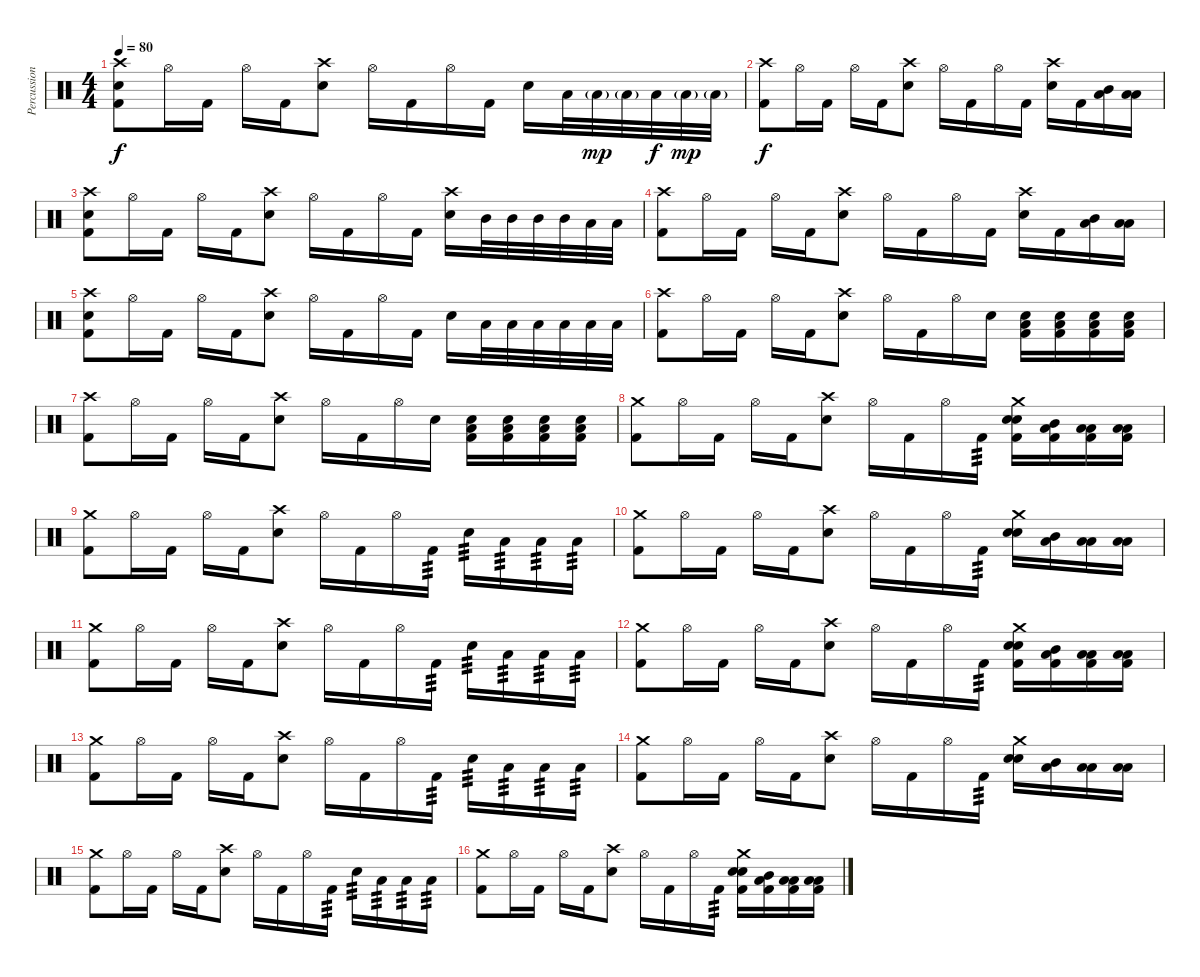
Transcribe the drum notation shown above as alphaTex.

\track ("Percussion" "Percussion") {instrument percussion}
\staff {score}
\articulation defaults
\ts (4 4)
\tempo 80
\clef neutral
\ks c
("Crash high (hit)" "Snare (hit) 2" "Kick (hit) 2").8{dy f} "Hi-Hat (open)".16 "Kick (hit) 2".16 "Hi-Hat (open)".16 "Kick (hit) 2".16 ("Crash high (hit)" "Snare (hit) 2").8 "Hi-Hat (open)".16 "Kick (hit) 2".16 "Hi-Hat (open)".16 "Kick (hit) 2".16 "Snare (hit) 2".16 "Low Floor Tom (hit)".32 "Low Floor Tom (hit)"{g}.32{dy mp} "Low Floor Tom (hit)"{g}.32 "Low Floor Tom (hit)".32{dy f} "Low Floor Tom (hit)"{g}.32{dy mp} "Low Floor Tom (hit)"{g}.32 |
("Crash high (hit)" "Kick (hit) 2").8{dy f} "Hi-Hat (open)".16 "Kick (hit) 2".16 "Hi-Hat (open)".16 "Kick (hit) 2".16 ("Crash high (hit)" "Snare (hit) 2").8 "Hi-Hat (open)".16 "Kick (hit) 2".16 "Hi-Hat (open)".16 "Kick (hit) 2".16 ("Crash high (hit)" "Snare (hit) 2").16 "Kick (hit) 2".16 ("Mid Tom (hit)" "Low Tom (hit)").16 ("Low Floor Tom (hit)" "Low Floor Tom (hit)").16 |
("Crash high (hit)" "Snare (hit) 2" "Kick (hit) 2").8 "Hi-Hat (open)".16 "Kick (hit) 2".16 "Hi-Hat (open)".16 "Kick (hit) 2".16 ("Crash high (hit)" "Snare (hit) 2").8 "Hi-Hat (open)".16 "Kick (hit) 2".16 "Hi-Hat (open)".16 "Kick (hit) 2".16 ("Crash high (hit)" "Snare (hit) 2").16 "Mid Tom (hit)".32 "Mid Tom (hit)".32 "Mid Tom (hit)".32 "Mid Tom (hit)".32 "Low Tom (hit)".32 "Low Tom (hit)".32 |
("Crash high (hit)" "Kick (hit) 2").8 "Hi-Hat (open)".16 "Kick (hit) 2".16 "Hi-Hat (open)".16 "Kick (hit) 2".16 ("Crash high (hit)" "Snare (hit) 2").8 "Hi-Hat (open)".16 "Kick (hit) 2".16 "Hi-Hat (open)".16 "Kick (hit) 2".16 ("Crash high (hit)" "Snare (hit) 2").16 "Kick (hit) 2".16 ("Mid Tom (hit)" "Low Tom (hit)").16 ("Low Floor Tom (hit)" "Low Floor Tom (hit)").16 |
("Crash high (hit)" "Snare (hit) 2" "Kick (hit) 2").8 "Hi-Hat (open)".16 "Kick (hit) 2".16 "Hi-Hat (open)".16 "Kick (hit) 2".16 ("Crash high (hit)" "Snare (hit) 2").8 "Hi-Hat (open)".16 "Kick (hit) 2".16 "Hi-Hat (open)".16 "Kick (hit) 2".16 "Snare (hit) 2".16 "Low Floor Tom (hit)".32 "Low Floor Tom (hit)".32 "Low Floor Tom (hit)".32 "Low Floor Tom (hit)".32 "Low Floor Tom (hit)".32 "Low Floor Tom (hit)".32 |
("Crash high (hit)" "Kick (hit) 2").8 "Hi-Hat (open)".16 "Kick (hit) 2".16 "Hi-Hat (open)".16 "Kick (hit) 2".16 ("Crash high (hit)" "Snare (hit) 2").8 "Hi-Hat (open)".16 "Kick (hit) 2".16 "Hi-Hat (open)".16 "Snare (hit) 2".16 ("Snare (hit) 2" "Low Floor Tom (hit)" "Kick (hit) 2").16 ("Snare (hit) 2" "Low Floor Tom (hit)" "Kick (hit) 2").16 ("Snare (hit) 2" "Low Floor Tom (hit)" "Kick (hit) 2").16 ("Snare (hit) 2" "Low Floor Tom (hit)" "Kick (hit) 2").16 |
("Crash high (hit)" "Kick (hit) 2").8 "Hi-Hat (open)".16 "Kick (hit) 2".16 "Hi-Hat (open)".16 "Kick (hit) 2".16 ("Crash high (hit)" "Snare (hit) 2").8 "Hi-Hat (open)".16 "Kick (hit) 2".16 "Hi-Hat (open)".16 "Snare (hit) 2".16 ("Snare (hit) 2" "Low Floor Tom (hit)" "Kick (hit) 2").16 ("Snare (hit) 2" "Low Floor Tom (hit)" "Kick (hit) 2").16 ("Snare (hit) 2" "Low Floor Tom (hit)" "Kick (hit) 2").16 ("Snare (hit) 2" "Low Floor Tom (hit)" "Kick (hit) 2").16 |
("Crash medium (hit)" "Kick (hit) 2").8 "Hi-Hat (open)".16 "Kick (hit) 2".16 "Hi-Hat (open)".16 "Kick (hit) 2".16 ("Crash high (hit)" "Snare (hit) 2").8 "Hi-Hat (open)".16 "Kick (hit) 2".16 "Hi-Hat (open)".16 "Kick (hit) 2".16{tp 3} ("Crash medium (hit)" "Snare (hit) 2" "Snare (hit) 2" "Kick (hit) 2").16 ("Mid Tom (hit)" "Low Tom (hit)" "Kick (hit) 2").16 ("Low Tom (hit)" "Low Floor Tom (hit)" "Kick (hit) 2").16 ("Low Tom (hit)" "Low Floor Tom (hit)" "Kick (hit) 2").16 |
("Crash medium (hit)" "Kick (hit) 2").8 "Hi-Hat (open)".16 "Kick (hit) 2".16 "Hi-Hat (open)".16 "Kick (hit) 2".16 ("Crash high (hit)" "Snare (hit) 2").8 "Hi-Hat (open)".16 "Kick (hit) 2".16 "Hi-Hat (open)".16 "Kick (hit) 2".16{tp 3} "Snare (hit) 2".16{tp 3} "Low Tom (hit)".16{tp 3} "Low Floor Tom (hit)".16{tp 3} "Low Floor Tom (hit)".16{tp 3} |
("Crash medium (hit)" "Kick (hit) 2").8 "Hi-Hat (open)".16 "Kick (hit) 2".16 "Hi-Hat (open)".16 "Kick (hit) 2".16 ("Crash high (hit)" "Snare (hit) 2").8 "Hi-Hat (open)".16 "Kick (hit) 2".16 "Hi-Hat (open)".16 "Kick (hit) 2".16{tp 3} ("Crash medium (hit)" "Snare (hit) 2" "Snare (hit) 2").16 ("Mid Tom (hit)" "Low Tom (hit)").16 ("Low Tom (hit)" "Low Floor Tom (hit)").16 ("Low Tom (hit)" "Low Floor Tom (hit)").16 |
("Crash medium (hit)" "Kick (hit) 2").8 "Hi-Hat (open)".16 "Kick (hit) 2".16 "Hi-Hat (open)".16 "Kick (hit) 2".16 ("Crash high (hit)" "Snare (hit) 2").8 "Hi-Hat (open)".16 "Kick (hit) 2".16 "Hi-Hat (open)".16 "Kick (hit) 2".16{tp 3} "Snare (hit) 2".16{tp 3} "Low Tom (hit)".16{tp 3} "Low Floor Tom (hit)".16{tp 3} "Low Floor Tom (hit)".16{tp 3} |
("Crash medium (hit)" "Kick (hit) 2").8 "Hi-Hat (open)".16 "Kick (hit) 2".16 "Hi-Hat (open)".16 "Kick (hit) 2".16 ("Crash high (hit)" "Snare (hit) 2").8 "Hi-Hat (open)".16 "Kick (hit) 2".16 "Hi-Hat (open)".16 "Kick (hit) 2".16{tp 3} ("Crash medium (hit)" "Snare (hit) 2" "Snare (hit) 2" "Kick (hit) 2").16 ("Mid Tom (hit)" "Low Tom (hit)" "Kick (hit) 2").16 ("Low Tom (hit)" "Low Floor Tom (hit)" "Kick (hit) 2").16 ("Low Tom (hit)" "Low Floor Tom (hit)" "Kick (hit) 2").16 |
("Crash medium (hit)" "Kick (hit) 2").8 "Hi-Hat (open)".16 "Kick (hit) 2".16 "Hi-Hat (open)".16 "Kick (hit) 2".16 ("Crash high (hit)" "Snare (hit) 2").8 "Hi-Hat (open)".16 "Kick (hit) 2".16 "Hi-Hat (open)".16 "Kick (hit) 2".16{tp 3} "Snare (hit) 2".16{tp 3} "Low Tom (hit)".16{tp 3} "Low Floor Tom (hit)".16{tp 3} "Low Floor Tom (hit)".16{tp 3} |
("Crash medium (hit)" "Kick (hit) 2").8 "Hi-Hat (open)".16 "Kick (hit) 2".16 "Hi-Hat (open)".16 "Kick (hit) 2".16 ("Crash high (hit)" "Snare (hit) 2").8 "Hi-Hat (open)".16 "Kick (hit) 2".16 "Hi-Hat (open)".16 "Kick (hit) 2".16{tp 3} ("Crash medium (hit)" "Snare (hit) 2" "Snare (hit) 2").16 ("Mid Tom (hit)" "Low Tom (hit)").16 ("Low Tom (hit)" "Low Floor Tom (hit)").16 ("Low Tom (hit)" "Low Floor Tom (hit)").16 |
("Crash medium (hit)" "Kick (hit) 2").8 "Hi-Hat (open)".16 "Kick (hit) 2".16 "Hi-Hat (open)".16 "Kick (hit) 2".16 ("Crash high (hit)" "Snare (hit) 2").8 "Hi-Hat (open)".16 "Kick (hit) 2".16 "Hi-Hat (open)".16 "Kick (hit) 2".16{tp 3} "Snare (hit) 2".16{tp 3} "Low Tom (hit)".16{tp 3} "Low Floor Tom (hit)".16{tp 3} "Low Floor Tom (hit)".16{tp 3} |
("Crash medium (hit)" "Kick (hit) 2").8 "Hi-Hat (open)".16 "Kick (hit) 2".16 "Hi-Hat (open)".16 "Kick (hit) 2".16 ("Crash high (hit)" "Snare (hit) 2").8 "Hi-Hat (open)".16 "Kick (hit) 2".16 "Hi-Hat (open)".16 "Kick (hit) 2".16{tp 3} ("Crash medium (hit)" "Snare (hit) 2" "Snare (hit) 2" "Kick (hit) 2").16 ("Mid Tom (hit)" "Low Tom (hit)" "Kick (hit) 2").16 ("Low Tom (hit)" "Low Floor Tom (hit)" "Kick (hit) 2").16 ("Low Tom (hit)" "Low Floor Tom (hit)" "Kick (hit) 2").16
